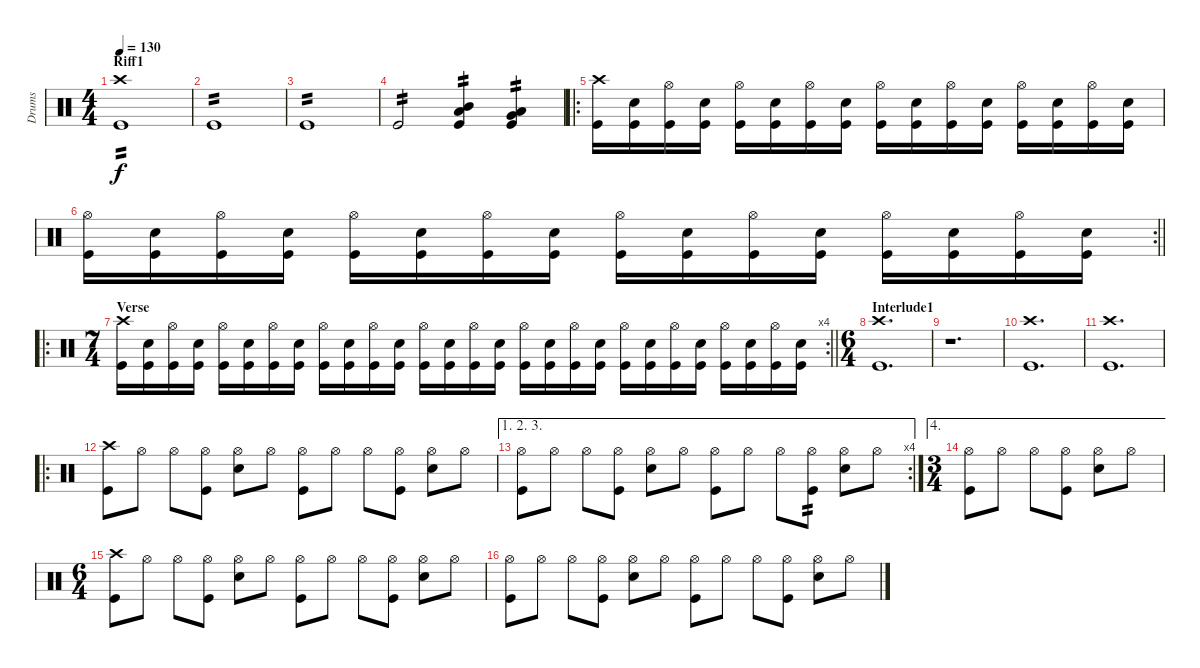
\track ("Drums" "Drums") {instrument percussion}
\staff {score}
\articulation defaults
\ts (4 4)
\section ("" "Riff1")
\tempo 130
\clef neutral
\ks c
("Crash high (hit)" "Kick (hit)").1{tp 2 dy f} |
"Kick (hit)".1{tp 2} |
"Kick (hit)".1{tp 2} |
"Kick (hit)".2{tp 2} ("Mid Tom (hit)" "Low Tom (hit)" "Kick (hit)").4{tp 2} ("Low Tom (hit)" "Very Low Tom (hit)" "Kick (hit)").4{tp 2} |
\ro
("Crash high (hit)" "Kick (hit)").16 ("Electric Snare (hit)" "Kick (hit)").16 ("Hi-Hat (open)" "Kick (hit)").16 ("Electric Snare (hit)" "Kick (hit)").16 ("Hi-Hat (open)" "Kick (hit)").16 ("Electric Snare (hit)" "Kick (hit)").16 ("Hi-Hat (open)" "Kick (hit)").16 ("Electric Snare (hit)" "Kick (hit)").16 ("Hi-Hat (open)" "Kick (hit)").16 ("Electric Snare (hit)" "Kick (hit)").16 ("Hi-Hat (open)" "Kick (hit)").16 ("Electric Snare (hit)" "Kick (hit)").16 ("Hi-Hat (open)" "Kick (hit)").16 ("Electric Snare (hit)" "Kick (hit)").16 ("Hi-Hat (open)" "Kick (hit)").16 ("Electric Snare (hit)" "Kick (hit)").16 |
\rc 2
\barLineRight lightlight
("Hi-Hat (open)" "Kick (hit)").16 ("Electric Snare (hit)" "Kick (hit)").16 ("Hi-Hat (open)" "Kick (hit)").16 ("Electric Snare (hit)" "Kick (hit)").16 ("Hi-Hat (open)" "Kick (hit)").16 ("Electric Snare (hit)" "Kick (hit)").16 ("Hi-Hat (open)" "Kick (hit)").16 ("Electric Snare (hit)" "Kick (hit)").16 ("Hi-Hat (open)" "Kick (hit)").16 ("Electric Snare (hit)" "Kick (hit)").16 ("Hi-Hat (open)" "Kick (hit)").16 ("Electric Snare (hit)" "Kick (hit)").16 ("Hi-Hat (open)" "Kick (hit)").16 ("Electric Snare (hit)" "Kick (hit)").16 ("Hi-Hat (open)" "Kick (hit)").16 ("Electric Snare (hit)" "Kick (hit)").16 |
\ro
\rc 4
\ts (7 4)
\section ("" "Verse")
\barLineRight lightlight
("Crash high (hit)" "Kick (hit)").16 ("Electric Snare (hit)" "Kick (hit)").16 ("Hi-Hat (open)" "Kick (hit)").16 ("Electric Snare (hit)" "Kick (hit)").16 ("Hi-Hat (open)" "Kick (hit)").16 ("Electric Snare (hit)" "Kick (hit)").16 ("Hi-Hat (open)" "Kick (hit)").16 ("Electric Snare (hit)" "Kick (hit)").16 ("Hi-Hat (open)" "Kick (hit)").16 ("Electric Snare (hit)" "Kick (hit)").16 ("Hi-Hat (open)" "Kick (hit)").16 ("Electric Snare (hit)" "Kick (hit)").16 ("Hi-Hat (open)" "Kick (hit)").16 ("Electric Snare (hit)" "Kick (hit)").16 ("Hi-Hat (open)" "Kick (hit)").16 ("Electric Snare (hit)" "Kick (hit)").16 ("Hi-Hat (open)" "Kick (hit)").16 ("Electric Snare (hit)" "Kick (hit)").16 ("Hi-Hat (open)" "Kick (hit)").16 ("Electric Snare (hit)" "Kick (hit)").16 ("Hi-Hat (open)" "Kick (hit)").16 ("Electric Snare (hit)" "Kick (hit)").16 ("Hi-Hat (open)" "Kick (hit)").16 ("Electric Snare (hit)" "Kick (hit)").16 ("Hi-Hat (open)" "Kick (hit)").16 ("Electric Snare (hit)" "Kick (hit)").16 ("Hi-Hat (open)" "Kick (hit)").16 ("Electric Snare (hit)" "Kick (hit)").16 |
\ts (6 4)
\section ("" "Interlude1")
("Crash high (hit)" "Kick (hit)").1{d} |
r.1{d} |
("Crash high (hit)" "Kick (hit)").1{d} |
("Crash high (hit)" "Kick (hit)").1{d} |
\ro
("Crash high (hit)" "Kick (hit)").8 "Hi-Hat (open)".8 "Hi-Hat (open)".8 ("Hi-Hat (open)" "Kick (hit)").8 ("Hi-Hat (open)" "Electric Snare (hit)").8 "Hi-Hat (open)".8 ("Hi-Hat (open)" "Kick (hit)").8 "Hi-Hat (open)".8 "Hi-Hat (open)".8 ("Hi-Hat (open)" "Kick (hit)").8 ("Hi-Hat (open)" "Electric Snare (hit)").8 "Hi-Hat (open)".8 |
\ae (1 2 3)
\rc 4
("Hi-Hat (open)" "Kick (hit)").8 "Hi-Hat (open)".8 "Hi-Hat (open)".8 ("Hi-Hat (open)" "Kick (hit)").8 ("Hi-Hat (open)" "Electric Snare (hit)").8 "Hi-Hat (open)".8 ("Hi-Hat (open)" "Kick (hit)").8 "Hi-Hat (open)".8 "Hi-Hat (open)".8 ("Hi-Hat (open)" "Kick (hit)").8{tp 2} ("Hi-Hat (open)" "Electric Snare (hit)").8 "Hi-Hat (open)".8 |
\ae 4
\ts (3 4)
("Hi-Hat (open)" "Kick (hit)").8 "Hi-Hat (open)".8 "Hi-Hat (open)".8 ("Hi-Hat (open)" "Kick (hit)").8 ("Hi-Hat (open)" "Electric Snare (hit)").8 "Hi-Hat (open)".8 |
\ts (6 4)
("Crash high (hit)" "Kick (hit)").8 "Hi-Hat (open)".8 "Hi-Hat (open)".8 ("Hi-Hat (open)" "Kick (hit)").8 ("Hi-Hat (open)" "Electric Snare (hit)").8 "Hi-Hat (open)".8 ("Hi-Hat (open)" "Kick (hit)").8 "Hi-Hat (open)".8 "Hi-Hat (open)".8 ("Hi-Hat (open)" "Kick (hit)").8 ("Hi-Hat (open)" "Electric Snare (hit)").8 "Hi-Hat (open)".8 |
("Hi-Hat (open)" "Kick (hit)").8 "Hi-Hat (open)".8 "Hi-Hat (open)".8 ("Hi-Hat (open)" "Kick (hit)").8 ("Hi-Hat (open)" "Electric Snare (hit)").8 "Hi-Hat (open)".8 ("Hi-Hat (open)" "Kick (hit)").8 "Hi-Hat (open)".8 "Hi-Hat (open)".8 ("Hi-Hat (open)" "Kick (hit)").8 ("Hi-Hat (open)" "Electric Snare (hit)").8 "Hi-Hat (open)".8
